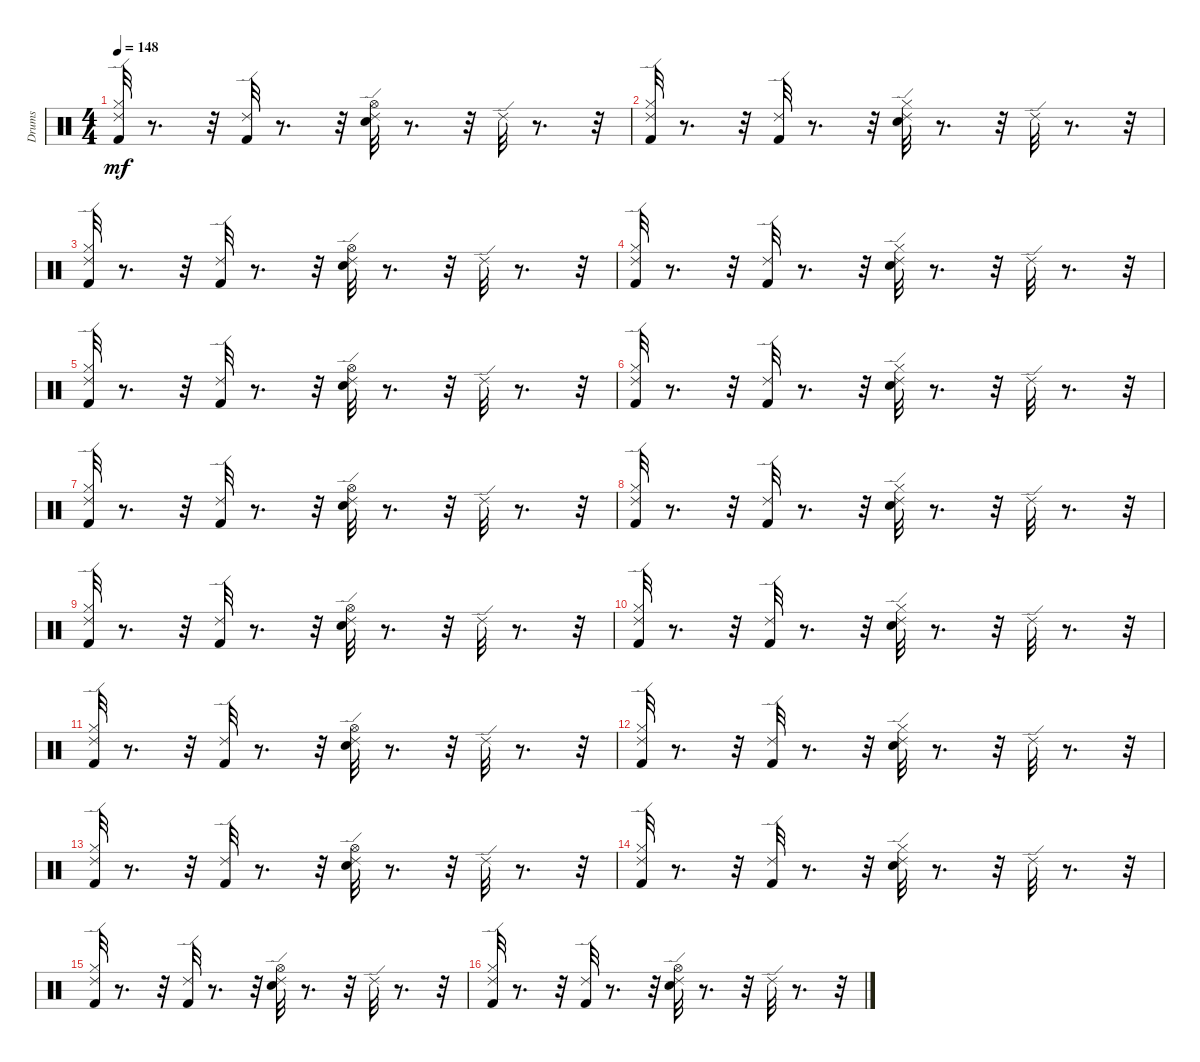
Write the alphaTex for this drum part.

\track ("Drums" "Drums") {instrument percussion}
\staff {score}
\articulation defaults
\ts (4 4)
\tempo 148
\clef neutral
\ks c
("Ride (edge) 2" "Hi-Hat (closed)" "Kick (hit) 2").32{dy mf} r.8{d} r.32 ("Ride (edge) 2" "Kick (hit) 2").32 r.8{d} r.32 ("Ride (edge) 2" "Hi-Hat (open)" "Electric Snare (hit)").32 r.8{d} r.32 "Ride (edge) 2".32 r.8{d} r.32 |
("Ride (edge) 2" "Kick (hit) 2" "Hi-Hat (closed)").32 r.8{d} r.32 ("Ride (edge) 2" "Kick (hit) 2").32 r.8{d} r.32 ("Ride (edge) 2" "Electric Snare (hit)" "Hi-Hat (closed)").32 r.8{d} r.32 "Ride (edge) 2".32 r.8{d} r.32 |
("Ride (edge) 2" "Hi-Hat (closed)" "Kick (hit) 2").32 r.8{d} r.32 ("Ride (edge) 2" "Kick (hit) 2").32 r.8{d} r.32 ("Ride (edge) 2" "Hi-Hat (open)" "Electric Snare (hit)").32 r.8{d} r.32 "Ride (edge) 2".32 r.8{d} r.32 |
("Ride (edge) 2" "Kick (hit) 2" "Hi-Hat (closed)").32 r.8{d} r.32 ("Ride (edge) 2" "Kick (hit) 2").32 r.8{d} r.32 ("Ride (edge) 2" "Electric Snare (hit)" "Hi-Hat (closed)").32 r.8{d} r.32 "Ride (edge) 2".32 r.8{d} r.32 |
("Ride (edge) 2" "Hi-Hat (closed)" "Kick (hit) 2").32 r.8{d} r.32 ("Ride (edge) 2" "Kick (hit) 2").32 r.8{d} r.32 ("Ride (edge) 2" "Hi-Hat (open)" "Electric Snare (hit)").32 r.8{d} r.32 "Ride (edge) 2".32 r.8{d} r.32 |
("Ride (edge) 2" "Kick (hit) 2" "Hi-Hat (closed)").32 r.8{d} r.32 ("Ride (edge) 2" "Kick (hit) 2").32 r.8{d} r.32 ("Ride (edge) 2" "Electric Snare (hit)" "Hi-Hat (closed)").32 r.8{d} r.32 "Ride (edge) 2".32 r.8{d} r.32 |
("Ride (edge) 2" "Hi-Hat (closed)" "Kick (hit) 2").32 r.8{d} r.32 ("Ride (edge) 2" "Kick (hit) 2").32 r.8{d} r.32 ("Ride (edge) 2" "Hi-Hat (open)" "Electric Snare (hit)").32 r.8{d} r.32 "Ride (edge) 2".32 r.8{d} r.32 |
("Ride (edge) 2" "Kick (hit) 2" "Hi-Hat (closed)").32 r.8{d} r.32 ("Ride (edge) 2" "Kick (hit) 2").32 r.8{d} r.32 ("Ride (edge) 2" "Electric Snare (hit)" "Hi-Hat (closed)").32 r.8{d} r.32 "Ride (edge) 2".32 r.8{d} r.32 |
("Ride (edge) 2" "Hi-Hat (closed)" "Kick (hit) 2").32 r.8{d} r.32 ("Ride (edge) 2" "Kick (hit) 2").32 r.8{d} r.32 ("Ride (edge) 2" "Hi-Hat (open)" "Electric Snare (hit)").32 r.8{d} r.32 "Ride (edge) 2".32 r.8{d} r.32 |
("Ride (edge) 2" "Kick (hit) 2" "Hi-Hat (closed)").32 r.8{d} r.32 ("Ride (edge) 2" "Kick (hit) 2").32 r.8{d} r.32 ("Ride (edge) 2" "Electric Snare (hit)" "Hi-Hat (closed)").32 r.8{d} r.32 "Ride (edge) 2".32 r.8{d} r.32 |
("Ride (edge) 2" "Hi-Hat (closed)" "Kick (hit) 2").32 r.8{d} r.32 ("Ride (edge) 2" "Kick (hit) 2").32 r.8{d} r.32 ("Ride (edge) 2" "Hi-Hat (open)" "Electric Snare (hit)").32 r.8{d} r.32 "Ride (edge) 2".32 r.8{d} r.32 |
("Ride (edge) 2" "Kick (hit) 2" "Hi-Hat (closed)").32 r.8{d} r.32 ("Ride (edge) 2" "Kick (hit) 2").32 r.8{d} r.32 ("Ride (edge) 2" "Electric Snare (hit)" "Hi-Hat (closed)").32 r.8{d} r.32 "Ride (edge) 2".32 r.8{d} r.32 |
("Ride (edge) 2" "Hi-Hat (closed)" "Kick (hit) 2").32 r.8{d} r.32 ("Ride (edge) 2" "Kick (hit) 2").32 r.8{d} r.32 ("Ride (edge) 2" "Hi-Hat (open)" "Electric Snare (hit)").32 r.8{d} r.32 "Ride (edge) 2".32 r.8{d} r.32 |
("Ride (edge) 2" "Kick (hit) 2" "Hi-Hat (closed)").32 r.8{d} r.32 ("Ride (edge) 2" "Kick (hit) 2").32 r.8{d} r.32 ("Ride (edge) 2" "Electric Snare (hit)" "Hi-Hat (closed)").32 r.8{d} r.32 "Ride (edge) 2".32 r.8{d} r.32 |
("Ride (edge) 2" "Hi-Hat (closed)" "Kick (hit) 2").32 r.8{d} r.32 ("Ride (edge) 2" "Kick (hit) 2").32 r.8{d} r.32 ("Ride (edge) 2" "Hi-Hat (open)" "Electric Snare (hit)").32 r.8{d} r.32 "Ride (edge) 2".32 r.8{d} r.32 |
("Ride (edge) 2" "Kick (hit) 2" "Hi-Hat (closed)").32 r.8{d} r.32 ("Ride (edge) 2" "Kick (hit) 2").32 r.8{d} r.32 ("Hi-Hat (open)" "Ride (edge) 2" "Electric Snare (hit)").32 r.8{d} r.32 "Ride (edge) 2".32 r.8{d} r.32
